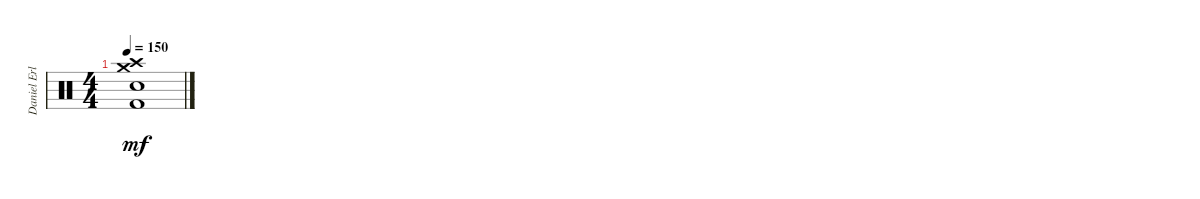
\track ("Daniel Erlandsson" "Daniel Erl") {instrument percussion}
\staff {score}
\articulation defaults
\ts (4 4)
\tempo 150
\clef neutral
\ks c
("Crash medium (hit)" "Crash high (hit)" "Electric Snare (hit)" "Kick (hit) 2").1{dy mf}
